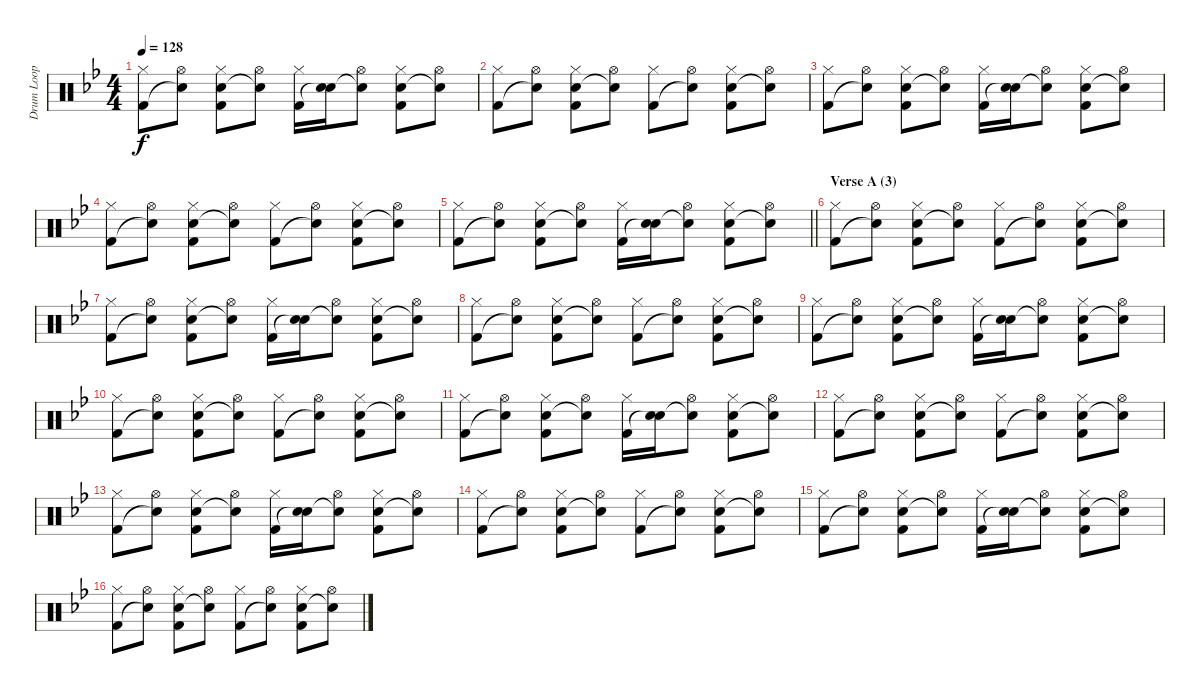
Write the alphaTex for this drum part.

\track ("Drum Loop" "Drum Loop") {instrument percussion}
\staff {score}
\articulation defaults
\ts (4 4)
\tempo 128
\clef neutral
\ks gminor
("Hi-Hat (closed)" "Kick (hit) 2").8{dy f} ("Hi-Hat (open)" "Snare (hit)"{t}).8 ("Hi-Hat (closed)" "Electric Snare (hit)" "Kick (hit) 2").8 ("Hi-Hat (open)" "Snare (hit)"{t}).8 ("Hi-Hat (closed)" "Kick (hit) 2").16 ("Electric Snare (hit)" "Snare (hit)"{t}).16 ("Hi-Hat (open)" "Snare (hit)"{t}).8 ("Hi-Hat (closed)" "Electric Snare (hit)" "Kick (hit) 2").8 ("Hi-Hat (open)" "Snare (hit)"{t}).8 |
("Hi-Hat (closed)" "Kick (hit) 2").8 ("Hi-Hat (open)" "Snare (hit)"{t}).8 ("Hi-Hat (closed)" "Electric Snare (hit)" "Kick (hit) 2").8 ("Hi-Hat (open)" "Snare (hit)"{t}).8 ("Hi-Hat (closed)" "Kick (hit) 2").8 ("Hi-Hat (open)" "Snare (hit)"{t}).8 ("Hi-Hat (closed)" "Electric Snare (hit)" "Kick (hit) 2").8 ("Hi-Hat (open)" "Snare (hit)"{t}).8 |
("Hi-Hat (closed)" "Kick (hit) 2").8 ("Hi-Hat (open)" "Snare (hit)"{t}).8 ("Hi-Hat (closed)" "Electric Snare (hit)" "Kick (hit) 2").8 ("Hi-Hat (open)" "Snare (hit)"{t}).8 ("Hi-Hat (closed)" "Kick (hit) 2").16 ("Electric Snare (hit)" "Snare (hit)"{t}).16 ("Hi-Hat (open)" "Snare (hit)"{t}).8 ("Hi-Hat (closed)" "Electric Snare (hit)" "Kick (hit) 2").8 ("Hi-Hat (open)" "Snare (hit)"{t}).8 |
("Hi-Hat (closed)" "Kick (hit) 2").8 ("Hi-Hat (open)" "Snare (hit)"{t}).8 ("Hi-Hat (closed)" "Electric Snare (hit)" "Kick (hit) 2").8 ("Hi-Hat (open)" "Snare (hit)"{t}).8 ("Hi-Hat (closed)" "Kick (hit) 2").8 ("Hi-Hat (open)" "Snare (hit)"{t}).8 ("Hi-Hat (closed)" "Electric Snare (hit)" "Kick (hit) 2").8 ("Hi-Hat (open)" "Snare (hit)"{t}).8 |
\barLineRight lightlight
("Hi-Hat (closed)" "Kick (hit) 2").8 ("Hi-Hat (open)" "Snare (hit)"{t}).8 ("Hi-Hat (closed)" "Electric Snare (hit)" "Kick (hit) 2").8 ("Hi-Hat (open)" "Snare (hit)"{t}).8 ("Hi-Hat (closed)" "Kick (hit) 2").16 ("Electric Snare (hit)" "Snare (hit)"{t}).16 ("Hi-Hat (open)" "Snare (hit)"{t}).8 ("Hi-Hat (closed)" "Electric Snare (hit)" "Kick (hit) 2").8 ("Hi-Hat (open)" "Snare (hit)"{t}).8 |
\section ("" "Verse A (3)")
("Hi-Hat (closed)" "Kick (hit) 2").8 ("Hi-Hat (open)" "Snare (hit)"{t}).8 ("Hi-Hat (closed)" "Electric Snare (hit)" "Kick (hit) 2").8 ("Hi-Hat (open)" "Snare (hit)"{t}).8 ("Hi-Hat (closed)" "Kick (hit) 2").8 ("Hi-Hat (open)" "Snare (hit)"{t}).8 ("Hi-Hat (closed)" "Electric Snare (hit)" "Kick (hit) 2").8 ("Hi-Hat (open)" "Snare (hit)"{t}).8 |
("Hi-Hat (closed)" "Kick (hit) 2").8 ("Hi-Hat (open)" "Snare (hit)"{t}).8 ("Hi-Hat (closed)" "Electric Snare (hit)" "Kick (hit) 2").8 ("Hi-Hat (open)" "Snare (hit)"{t}).8 ("Hi-Hat (closed)" "Kick (hit) 2").16 ("Electric Snare (hit)" "Snare (hit)"{t}).16 ("Hi-Hat (open)" "Snare (hit)"{t}).8 ("Hi-Hat (closed)" "Electric Snare (hit)" "Kick (hit) 2").8 ("Hi-Hat (open)" "Snare (hit)"{t}).8 |
("Hi-Hat (closed)" "Kick (hit) 2").8 ("Hi-Hat (open)" "Snare (hit)"{t}).8 ("Hi-Hat (closed)" "Electric Snare (hit)" "Kick (hit) 2").8 ("Hi-Hat (open)" "Snare (hit)"{t}).8 ("Hi-Hat (closed)" "Kick (hit) 2").8 ("Hi-Hat (open)" "Snare (hit)"{t}).8 ("Hi-Hat (closed)" "Electric Snare (hit)" "Kick (hit) 2").8 ("Hi-Hat (open)" "Snare (hit)"{t}).8 |
("Hi-Hat (closed)" "Kick (hit) 2").8 ("Hi-Hat (open)" "Snare (hit)"{t}).8 ("Hi-Hat (closed)" "Electric Snare (hit)" "Kick (hit) 2").8 ("Hi-Hat (open)" "Snare (hit)"{t}).8 ("Hi-Hat (closed)" "Kick (hit) 2").16 ("Electric Snare (hit)" "Snare (hit)"{t}).16 ("Hi-Hat (open)" "Snare (hit)"{t}).8 ("Hi-Hat (closed)" "Electric Snare (hit)" "Kick (hit) 2").8 ("Hi-Hat (open)" "Snare (hit)"{t}).8 |
("Hi-Hat (closed)" "Kick (hit) 2").8 ("Hi-Hat (open)" "Snare (hit)"{t}).8 ("Hi-Hat (closed)" "Electric Snare (hit)" "Kick (hit) 2").8 ("Hi-Hat (open)" "Snare (hit)"{t}).8 ("Hi-Hat (closed)" "Kick (hit) 2").8 ("Hi-Hat (open)" "Snare (hit)"{t}).8 ("Hi-Hat (closed)" "Electric Snare (hit)" "Kick (hit) 2").8 ("Hi-Hat (open)" "Snare (hit)"{t}).8 |
("Hi-Hat (closed)" "Kick (hit) 2").8 ("Hi-Hat (open)" "Snare (hit)"{t}).8 ("Hi-Hat (closed)" "Electric Snare (hit)" "Kick (hit) 2").8 ("Hi-Hat (open)" "Snare (hit)"{t}).8 ("Hi-Hat (closed)" "Kick (hit) 2").16 ("Electric Snare (hit)" "Snare (hit)"{t}).16 ("Hi-Hat (open)" "Snare (hit)"{t}).8 ("Hi-Hat (closed)" "Electric Snare (hit)" "Kick (hit) 2").8 ("Hi-Hat (open)" "Snare (hit)"{t}).8 |
("Hi-Hat (closed)" "Kick (hit) 2").8 ("Hi-Hat (open)" "Snare (hit)"{t}).8 ("Hi-Hat (closed)" "Electric Snare (hit)" "Kick (hit) 2").8 ("Hi-Hat (open)" "Snare (hit)"{t}).8 ("Hi-Hat (closed)" "Kick (hit) 2").8 ("Hi-Hat (open)" "Snare (hit)"{t}).8 ("Hi-Hat (closed)" "Electric Snare (hit)" "Kick (hit) 2").8 ("Hi-Hat (open)" "Snare (hit)"{t}).8 |
("Hi-Hat (closed)" "Kick (hit) 2").8 ("Hi-Hat (open)" "Snare (hit)"{t}).8 ("Hi-Hat (closed)" "Electric Snare (hit)" "Kick (hit) 2").8 ("Hi-Hat (open)" "Snare (hit)"{t}).8 ("Hi-Hat (closed)" "Kick (hit) 2").16 ("Electric Snare (hit)" "Snare (hit)"{t}).16 ("Hi-Hat (open)" "Snare (hit)"{t}).8 ("Hi-Hat (closed)" "Electric Snare (hit)" "Kick (hit) 2").8 ("Hi-Hat (open)" "Snare (hit)"{t}).8 |
("Hi-Hat (closed)" "Kick (hit) 2").8 ("Hi-Hat (open)" "Snare (hit)"{t}).8 ("Hi-Hat (closed)" "Electric Snare (hit)" "Kick (hit) 2").8 ("Hi-Hat (open)" "Snare (hit)"{t}).8 ("Hi-Hat (closed)" "Kick (hit) 2").8 ("Hi-Hat (open)" "Snare (hit)"{t}).8 ("Hi-Hat (closed)" "Electric Snare (hit)" "Kick (hit) 2").8 ("Hi-Hat (open)" "Snare (hit)"{t}).8 |
("Hi-Hat (closed)" "Kick (hit) 2").8 ("Hi-Hat (open)" "Snare (hit)"{t}).8 ("Hi-Hat (closed)" "Electric Snare (hit)" "Kick (hit) 2").8 ("Hi-Hat (open)" "Snare (hit)"{t}).8 ("Hi-Hat (closed)" "Kick (hit) 2").16 ("Electric Snare (hit)" "Snare (hit)"{t}).16 ("Hi-Hat (open)" "Snare (hit)"{t}).8 ("Hi-Hat (closed)" "Electric Snare (hit)" "Kick (hit) 2").8 ("Hi-Hat (open)" "Snare (hit)"{t}).8 |
("Hi-Hat (closed)" "Kick (hit) 2").8 ("Hi-Hat (open)" "Snare (hit)"{t}).8 ("Hi-Hat (closed)" "Electric Snare (hit)" "Kick (hit) 2").8 ("Hi-Hat (open)" "Snare (hit)"{t}).8 ("Hi-Hat (closed)" "Kick (hit) 2").8 ("Hi-Hat (open)" "Snare (hit)"{t}).8 ("Hi-Hat (closed)" "Electric Snare (hit)" "Kick (hit) 2").8 ("Hi-Hat (open)" "Snare (hit)"{t}).8
